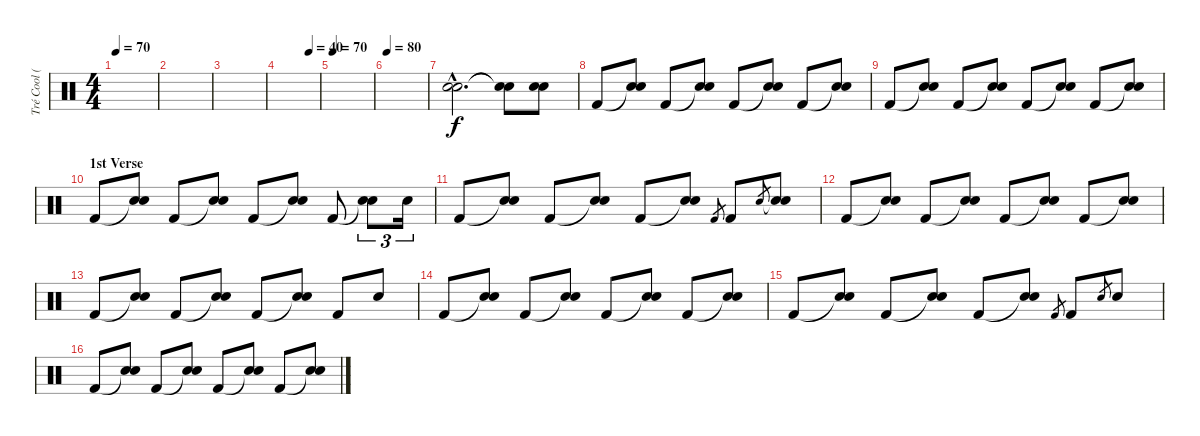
\track ("Tré Cool (Drums)" "Tré Cool (") {instrument percussion}
\staff {score}
\articulation defaults
\ts (4 4)
\tempo 70
\clef neutral
\ks c
|
|
|
\tempo (40 0.75)
|
\tempo 70
|
\tempo 80
|
("Electric Snare (hit)"{tr (40 64) hac} "Electric Snare (hit)"{tr (38 64) hac}).2{d volume 10} ("Snare (hit)"{t} "Snare (hit)"{t}).8 ("Electric Snare (hit)" "Electric Snare (hit)").8 |
"Kick (hit) 2".8{volume 16} ("Snare (hit)"{t} "Electric Snare (hit)").8 "Kick (hit) 2".8 ("Snare (hit)"{t} "Electric Snare (hit)").8 "Kick (hit) 2".8 ("Snare (hit)"{t} "Electric Snare (hit)").8 "Kick (hit) 2".8 ("Snare (hit)"{t} "Electric Snare (hit)").8 |
"Kick (hit) 2".8 ("Snare (hit)"{t} "Electric Snare (hit)").8 "Kick (hit) 2".8 ("Snare (hit)"{t} "Electric Snare (hit)").8 "Kick (hit) 2".8 ("Snare (hit)"{t} "Electric Snare (hit)").8 "Kick (hit) 2".8 ("Snare (hit)"{t} "Electric Snare (hit)"{tr (38 64)}).8 |
\section ("" "1st Verse")
"Kick (hit) 2".8 ("Snare (hit)"{t} "Electric Snare (hit)").8 "Kick (hit) 2".8 ("Snare (hit)"{t} "Electric Snare (hit)").8 "Kick (hit) 2".8 ("Snare (hit)"{t} "Electric Snare (hit)").8 "Kick (hit) 2".8 ("Snare (hit)"{t} "Electric Snare (hit)").8{tu (3 2)} "Electric Snare (hit)".16{tu (3 2)} |
"Kick (hit) 2".8 ("Snare (hit)"{t} "Electric Snare (hit)").8 "Kick (hit) 2".8 ("Snare (hit)"{t} "Electric Snare (hit)").8 "Kick (hit) 2".8 ("Snare (hit)"{t} "Electric Snare (hit)").8 "Kick (hit) 2".8{gr} "Kick (hit) 2".8 "Electric Snare (hit)".8{gr} ("Snare (hit)"{t} "Electric Snare (hit)").8 |
"Kick (hit) 2".8 ("Snare (hit)"{t} "Electric Snare (hit)").8 "Kick (hit) 2".8 ("Snare (hit)"{t} "Electric Snare (hit)").8 "Kick (hit) 2".8 ("Snare (hit)"{t} "Electric Snare (hit)").8 "Kick (hit) 2".8 ("Snare (hit)"{t} "Electric Snare (hit)").8 |
"Kick (hit) 2".8 ("Snare (hit)"{t} "Electric Snare (hit)").8 "Kick (hit) 2".8 ("Snare (hit)"{t} "Electric Snare (hit)").8 "Kick (hit) 2".8 ("Snare (hit)"{t} "Electric Snare (hit)").8 "Kick (hit) 2".8 "Electric Snare (hit)"{tr (38 64)}.8 |
"Kick (hit) 2".8 ("Snare (hit)"{t} "Electric Snare (hit)").8 "Kick (hit) 2".8 ("Snare (hit)"{t} "Electric Snare (hit)").8 "Kick (hit) 2".8 ("Snare (hit)"{t} "Electric Snare (hit)").8 "Kick (hit) 2".8 ("Snare (hit)"{t} "Electric Snare (hit)").8 |
"Kick (hit) 2".8 ("Snare (hit)"{t} "Electric Snare (hit)").8 "Kick (hit) 2".8 ("Snare (hit)"{t} "Electric Snare (hit)").8 "Kick (hit) 2".8 ("Snare (hit)"{t} "Electric Snare (hit)").8 "Kick (hit) 2".8{gr} "Kick (hit) 2".8 "Electric Snare (hit)".8{gr} "Electric Snare (hit)".8 |
"Kick (hit) 2".8 ("Snare (hit)"{t} "Electric Snare (hit)").8 "Kick (hit) 2".8 ("Snare (hit)"{t} "Electric Snare (hit)").8 "Kick (hit) 2".8 ("Snare (hit)"{t} "Electric Snare (hit)").8 "Kick (hit) 2".8 ("Snare (hit)"{t} "Electric Snare (hit)").8
